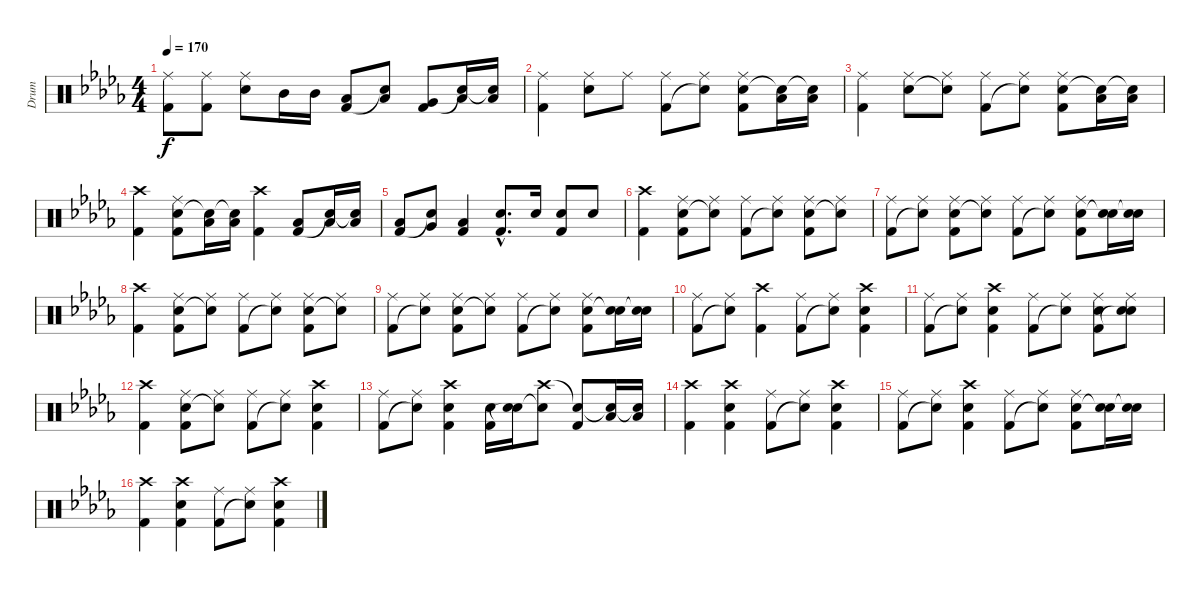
\track ("Drum" "Drum") {instrument percussion}
\staff {score}
\articulation defaults
\ts (4 4)
\tempo 170
\clef neutral
\ks db
("Ride (middle)" "Kick (hit) 2").8{dy f} ("Ride (middle)" "Kick (hit) 2").8 ("Ride (middle)" "Electric Snare (hit)").8 "Mid Tom (hit)".16 "Mid Tom (hit)".16 ("Low Tom (hit)" "Kick (hit) 2").8 ("Low Tom (hit)" "Snare (hit)"{t}).8 ("Very Low Tom (hit)" "Kick (hit) 2").8 ("Low Floor Tom (hit)" "Snare (hit)"{t}).16 ("Low Floor Tom (hit)" "Snare (hit)"{t}).16 |
("Ride (middle)" "Kick (hit) 2").4 ("Ride (middle)" "Electric Snare (hit)").8 "Ride (middle)".8 ("Ride (middle)" "Kick (hit) 2").8 ("Ride (middle)" "Snare (hit)"{t}).8 ("Ride (middle)" "Electric Snare (hit)" "Kick (hit) 2").8 ("Low Floor Tom (hit)" "Snare (hit)"{t}).16 ("Low Floor Tom (hit)" "Snare (hit)"{t}).16 |
("Ride (middle)" "Kick (hit) 2").4 ("Ride (middle)" "Electric Snare (hit)").8 ("Ride (middle)" "Snare (hit)"{t}).8 ("Ride (middle)" "Kick (hit) 2").8 ("Ride (middle)" "Snare (hit)"{t}).8 ("Ride (middle)" "Electric Snare (hit)" "Kick (hit) 2").8 ("Low Floor Tom (hit)" "Snare (hit)"{t}).16 ("Low Floor Tom (hit)" "Snare (hit)"{t}).16 |
("Crash high (hit)" "Kick (hit) 2").4 ("Ride (middle)" "Electric Snare (hit)" "Kick (hit) 2").8 ("Low Floor Tom (hit)" "Snare (hit)"{t}).16 ("Low Floor Tom (hit)" "Snare (hit)"{t}).16 ("Crash high (hit)" "Kick (hit) 2").4 ("Low Tom (hit)" "Kick (hit) 2").8 ("Low Floor Tom (hit)" "Snare (hit)"{t}).16 ("Low Floor Tom (hit)" "Snare (hit)"{t}).16 |
("Low Tom (hit)" "Kick (hit) 2").8 ("Very Low Tom (hit)" "Snare (hit)"{t}).8 ("Low Floor Tom (hit)" "Kick (hit) 2").4 ("Electric Snare (hit)"{hac} "Kick (hit) 2"{hac}).8{d} "Electric Snare (hit)".16 ("Electric Snare (hit)" "Kick (hit) 2").8 "Electric Snare (hit)".8 |
("Crash high (hit)" "Kick (hit) 2").4 ("Ride (middle)" "Electric Snare (hit)" "Kick (hit) 2").8 ("Ride (middle)" "Snare (hit)"{t}).8 ("Ride (middle)" "Kick (hit) 2").8 ("Ride (middle)" "Snare (hit)"{t}).8 ("Ride (middle)" "Electric Snare (hit)" "Kick (hit) 2").8 ("Ride (middle)" "Snare (hit)"{t}).8 |
("Ride (middle)" "Kick (hit) 2").8 ("Ride (middle)" "Snare (hit)"{t}).8 ("Ride (middle)" "Electric Snare (hit)" "Kick (hit) 2").8 ("Ride (middle)" "Snare (hit)"{t}).8 ("Ride (middle)" "Kick (hit) 2").8 ("Ride (middle)" "Snare (hit)"{t}).8 ("Ride (middle)" "Electric Snare (hit)" "Kick (hit) 2").8 ("Electric Snare (hit)" "Snare (hit)"{t}).16 ("Electric Snare (hit)" "Snare (hit)"{t}).16 |
("Crash high (hit)" "Kick (hit) 2").4 ("Ride (middle)" "Electric Snare (hit)" "Kick (hit) 2").8 ("Ride (middle)" "Snare (hit)"{t}).8 ("Ride (middle)" "Kick (hit) 2").8 ("Ride (middle)" "Snare (hit)"{t}).8 ("Ride (middle)" "Electric Snare (hit)" "Kick (hit) 2").8 ("Ride (middle)" "Snare (hit)"{t}).8 |
("Ride (middle)" "Kick (hit) 2").8 ("Ride (middle)" "Snare (hit)"{t}).8 ("Ride (middle)" "Electric Snare (hit)" "Kick (hit) 2").8 ("Ride (middle)" "Snare (hit)"{t}).8 ("Ride (middle)" "Kick (hit) 2").8 ("Ride (middle)" "Snare (hit)"{t}).8 ("Ride (middle)" "Electric Snare (hit)" "Kick (hit) 2").8 ("Electric Snare (hit)" "Snare (hit)"{t}).16 ("Electric Snare (hit)" "Snare (hit)"{t}).16 |
("Ride (middle)" "Kick (hit) 2").8 ("Ride (middle)" "Snare (hit)"{t}).8 ("Crash high (hit)" "Kick (hit) 2").4 ("Ride (middle)" "Kick (hit) 2").8 ("Ride (middle)" "Snare (hit)"{t}).8 ("Crash high (hit)" "Electric Snare (hit)" "Kick (hit) 2").4 |
("Ride (middle)" "Kick (hit) 2").8 ("Ride (middle)" "Snare (hit)"{t}).8 ("Crash high (hit)" "Electric Snare (hit)" "Kick (hit) 2").4 ("Ride (middle)" "Kick (hit) 2").8 ("Ride (middle)" "Snare (hit)"{t}).8 ("Ride (middle)" "Electric Snare (hit)" "Kick (hit) 2").8 ("Ride (middle)" "Electric Snare (hit)" "Snare (hit)"{t}).8 |
("Crash high (hit)" "Kick (hit) 2").4 ("Ride (middle)" "Electric Snare (hit)" "Kick (hit) 2").8 ("Ride (middle)" "Snare (hit)"{t}).8 ("Ride (middle)" "Kick (hit) 2").8 ("Ride (middle)" "Snare (hit)"{t}).8 ("Crash high (hit)" "Electric Snare (hit)" "Kick (hit) 2").4 |
("Ride (middle)" "Kick (hit) 2").8 ("Ride (middle)" "Snare (hit)"{t}).8 ("Crash high (hit)" "Electric Snare (hit)" "Kick (hit) 2").4 ("Electric Snare (hit)" "Kick (hit) 2").16 ("Electric Snare (hit)" "Snare (hit)"{t}).16 ("Crash high (hit)" "Snare (hit)"{t}).8 ("Snare (hit)"{t} "Kick (hit) 2").8 ("Snare (hit)"{t} "Low Floor Tom (hit)").16 ("Snare (hit)"{t} "Low Floor Tom (hit)").16 |
("Crash high (hit)" "Kick (hit) 2").4 ("Crash high (hit)" "Electric Snare (hit)" "Kick (hit) 2").4 ("Ride (middle)" "Kick (hit) 2").8 ("Ride (middle)" "Snare (hit)"{t}).8 ("Crash high (hit)" "Electric Snare (hit)" "Kick (hit) 2").4 |
("Ride (middle)" "Kick (hit) 2").8 ("Ride (middle)" "Snare (hit)"{t}).8 ("Crash high (hit)" "Electric Snare (hit)" "Kick (hit) 2").4 ("Ride (middle)" "Kick (hit) 2").8 ("Ride (middle)" "Snare (hit)"{t}).8 ("Ride (middle)" "Electric Snare (hit)" "Kick (hit) 2").8 ("Electric Snare (hit)" "Snare (hit)"{t}).16 ("Electric Snare (hit)" "Snare (hit)"{t}).16 |
("Crash high (hit)" "Kick (hit) 2").4 ("Crash high (hit)" "Electric Snare (hit)" "Kick (hit) 2").4 ("Ride (middle)" "Kick (hit) 2").8 ("Ride (middle)" "Snare (hit)"{t}).8 ("Crash high (hit)" "Electric Snare (hit)" "Kick (hit) 2").4
